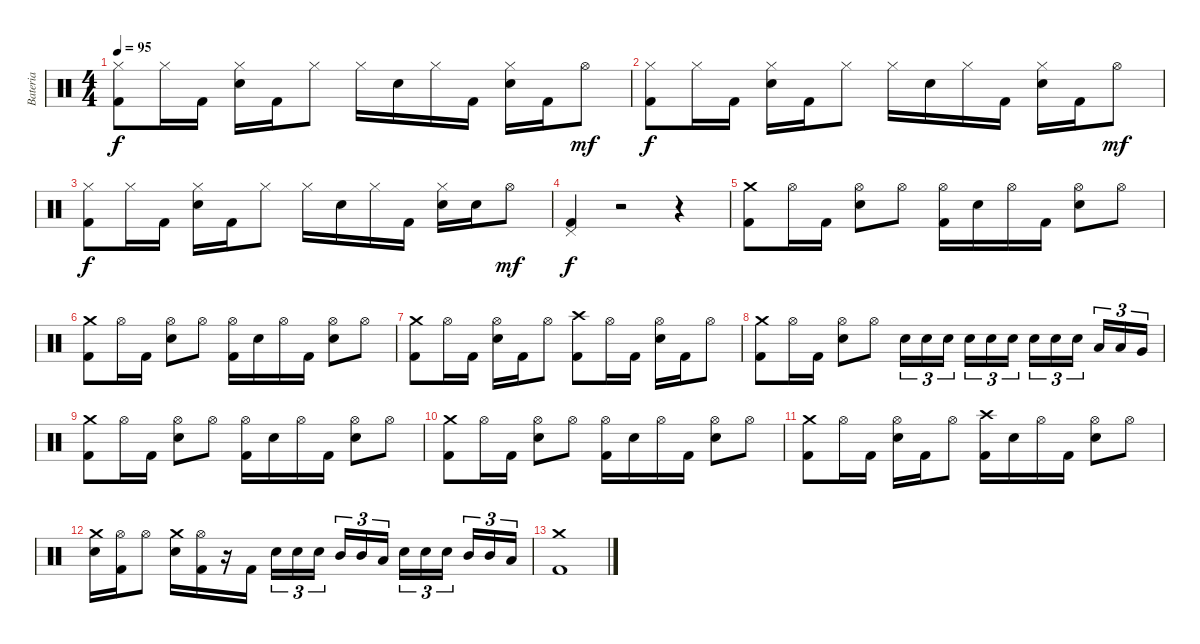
\track ("Bateria" "Bateria") {instrument percussion}
\staff {score}
\articulation defaults
\ts (4 4)
\tempo 95
\clef neutral
\ks c
("Hi-Hat (closed)" "Kick (hit) 2").8{dy f} "Hi-Hat (closed)".16 "Kick (hit) 2".16 ("Hi-Hat (closed)" "Electric Snare (hit)").16 "Kick (hit) 2".16 "Hi-Hat (closed)".8 "Hi-Hat (closed)".16 "Electric Snare (hit)".16 "Hi-Hat (closed)".16 "Kick (hit) 2".16 ("Hi-Hat (closed)" "Electric Snare (hit)").16 "Kick (hit) 2".16 "Hi-Hat (open)".8{dy mf} |
("Hi-Hat (closed)" "Kick (hit) 2").8{dy f} "Hi-Hat (closed)".16 "Kick (hit) 2".16 ("Hi-Hat (closed)" "Electric Snare (hit)").16 "Kick (hit) 2".16 "Hi-Hat (closed)".8 "Hi-Hat (closed)".16 "Electric Snare (hit)".16 "Hi-Hat (closed)".16 "Kick (hit) 2".16 ("Hi-Hat (closed)" "Electric Snare (hit)").16 "Kick (hit) 2".16 "Hi-Hat (open)".8{dy mf} |
("Hi-Hat (closed)" "Kick (hit) 2").8{dy f} "Hi-Hat (closed)".16 "Kick (hit) 2".16 ("Hi-Hat (closed)" "Electric Snare (hit)").16 "Kick (hit) 2".16 "Hi-Hat (closed)".8 "Hi-Hat (closed)".16 "Electric Snare (hit)".16 "Hi-Hat (closed)".16 "Kick (hit) 2".16 ("Hi-Hat (closed)" "Electric Snare (hit)").16 "Electric Snare (hit)".16 "Hi-Hat (open)".8{dy mf} |
("Pedal Hi-Hat (hit)" "Kick (hit) 2").4{dy f} r.2 r.4 |
("Crash medium (hit)" "Kick (hit) 2").8 "Hi-Hat (open)".16 "Kick (hit) 2".16 ("Hi-Hat (open)" "Electric Snare (hit)").8 "Hi-Hat (open)".8 ("Hi-Hat (open)" "Kick (hit) 2").16 "Electric Snare (hit)".16 "Hi-Hat (open)".16 "Kick (hit) 2".16 ("Hi-Hat (open)" "Electric Snare (hit)").8 "Hi-Hat (open)".8 |
("Crash medium (hit)" "Kick (hit) 2").8 "Hi-Hat (open)".16 "Kick (hit) 2".16 ("Hi-Hat (open)" "Electric Snare (hit)").8 "Hi-Hat (open)".8 ("Hi-Hat (open)" "Kick (hit) 2").16 "Electric Snare (hit)".16 "Hi-Hat (open)".16 "Kick (hit) 2".16 ("Hi-Hat (open)" "Electric Snare (hit)").8 "Hi-Hat (open)".8 |
("Crash medium (hit)" "Kick (hit) 2").8 "Hi-Hat (open)".16 "Kick (hit) 2".16 ("Hi-Hat (open)" "Electric Snare (hit)").16 "Kick (hit) 2".16 "Hi-Hat (open)".8 ("Crash high (hit)" "Kick (hit) 2").8 "Hi-Hat (open)".16 "Kick (hit) 2".16 ("Hi-Hat (open)" "Electric Snare (hit)").16 "Kick (hit) 2".16 "Hi-Hat (open)".8 |
("Crash medium (hit)" "Kick (hit) 2").8 "Hi-Hat (open)".16 "Kick (hit) 2".16 ("Hi-Hat (open)" "Electric Snare (hit)").8 "Hi-Hat (open)".8 "Electric Snare (hit)".16{tu (3 2)} "Electric Snare (hit)".16{tu (3 2)} "Electric Snare (hit)".16{tu (3 2)} "Electric Snare (hit)".16{tu (3 2)} "Electric Snare (hit)".16{tu (3 2)} "Electric Snare (hit)".16{tu (3 2)} "Electric Snare (hit)".16{tu (3 2)} "Electric Snare (hit)".16{tu (3 2)} "Electric Snare (hit)".16{tu (3 2)} "Low Tom (hit)".16{tu (3 2)} "Low Tom (hit)".16{tu (3 2)} "Very Low Tom (hit)".16{tu (3 2)} |
("Crash medium (hit)" "Kick (hit) 2").8 "Hi-Hat (open)".16 "Kick (hit) 2".16 ("Hi-Hat (open)" "Electric Snare (hit)").8 "Hi-Hat (open)".8 ("Hi-Hat (open)" "Kick (hit) 2").16 "Electric Snare (hit)".16 "Hi-Hat (open)".16 "Kick (hit) 2".16 ("Hi-Hat (open)" "Electric Snare (hit)").8 "Hi-Hat (open)".8 |
("Crash medium (hit)" "Kick (hit) 2").8 "Hi-Hat (open)".16 "Kick (hit) 2".16 ("Hi-Hat (open)" "Electric Snare (hit)").8 "Hi-Hat (open)".8 ("Hi-Hat (open)" "Kick (hit) 2").16 "Electric Snare (hit)".16 "Hi-Hat (open)".16 "Kick (hit) 2".16 ("Hi-Hat (open)" "Electric Snare (hit)").8 "Hi-Hat (open)".8 |
("Crash medium (hit)" "Kick (hit) 2").8 "Hi-Hat (open)".16 "Kick (hit) 2".16 ("Hi-Hat (open)" "Electric Snare (hit)").16 "Kick (hit) 2".16 "Hi-Hat (open)".8 ("Crash high (hit)" "Kick (hit) 2").16 "Electric Snare (hit)".16 "Hi-Hat (open)".16 "Kick (hit) 2".16 ("Hi-Hat (open)" "Electric Snare (hit)").8 "Hi-Hat (open)".8 |
("Crash medium (hit)" "Electric Snare (hit)").16 ("Hi-Hat (open)" "Kick (hit) 2").16 "Hi-Hat (open)".8 ("Crash medium (hit)" "Electric Snare (hit)").16 ("Hi-Hat (open)" "Kick (hit) 2").16 r.16 "Kick (hit) 2".16 "Electric Snare (hit)".16{tu (3 2)} "Electric Snare (hit)".16{tu (3 2)} "Electric Snare (hit)".16{tu (3 2)} "Mid Tom (hit)".16{tu (3 2)} "Mid Tom (hit)".16{tu (3 2)} "Low Tom (hit)".16{tu (3 2)} "Electric Snare (hit)".16{tu (3 2)} "Electric Snare (hit)".16{tu (3 2)} "Electric Snare (hit)".16{tu (3 2)} "Mid Tom (hit)".16{tu (3 2)} "Mid Tom (hit)".16{tu (3 2)} "Low Tom (hit)".16{tu (3 2)} |
("Crash medium (hit)" "Kick (hit) 2").1
